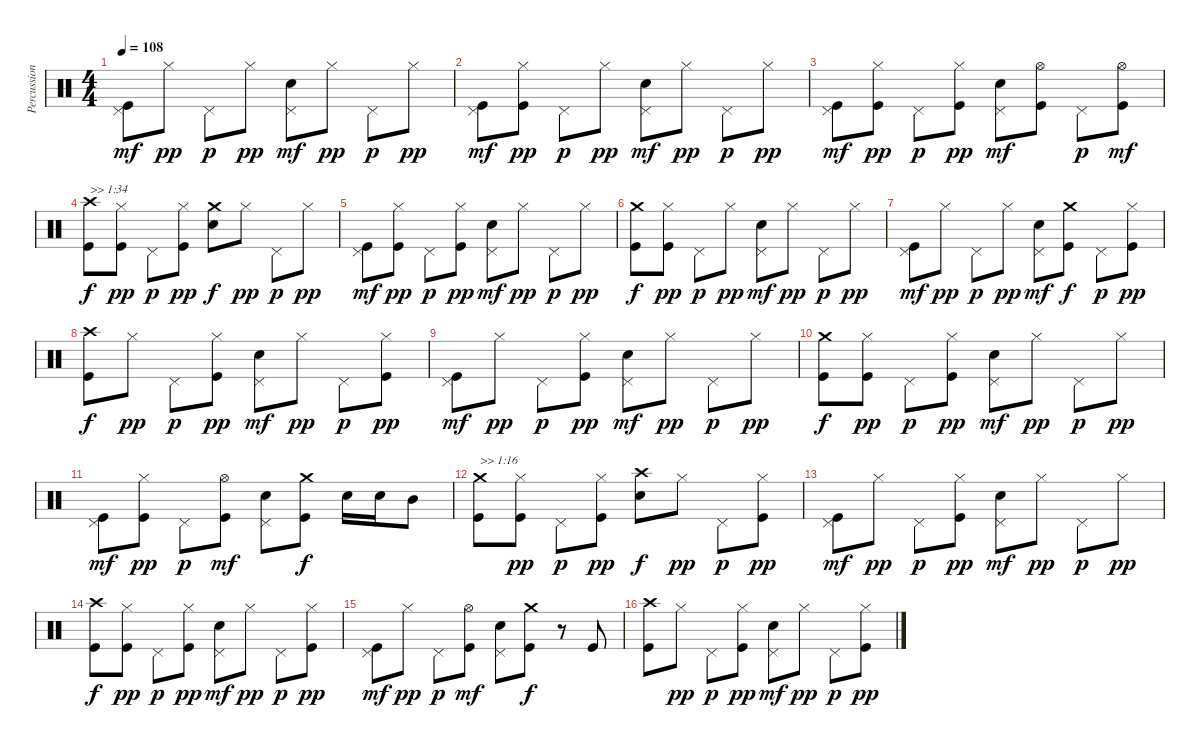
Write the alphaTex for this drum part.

\track ("Percussion" "Percussion") {instrument percussion}
\staff {score}
\articulation defaults
\ts (4 4)
\tempo 108
\clef neutral
\ks c
("Kick (hit)" "Pedal Hi-Hat (hit)").8{dy mf} "Hi-Hat (closed)".8{dy pp} "Pedal Hi-Hat (hit)".8{dy p} "Hi-Hat (closed)".8{dy pp} ("Electric Snare (hit)" "Pedal Hi-Hat (hit)").8{dy mf} "Hi-Hat (closed)".8{dy pp} "Pedal Hi-Hat (hit)".8{dy p} "Hi-Hat (closed)".8{dy pp} |
("Kick (hit)" "Pedal Hi-Hat (hit)").8{dy mf} ("Kick (hit)" "Hi-Hat (closed)").8{dy pp} "Pedal Hi-Hat (hit)".8{dy p} "Hi-Hat (closed)".8{dy pp} ("Electric Snare (hit)" "Pedal Hi-Hat (hit)").8{dy mf} "Hi-Hat (closed)".8{dy pp} "Pedal Hi-Hat (hit)".8{dy p} "Hi-Hat (closed)".8{dy pp} |
("Kick (hit)" "Pedal Hi-Hat (hit)").8{dy mf} ("Kick (hit)" "Hi-Hat (closed)").8{dy pp} "Pedal Hi-Hat (hit)".8{dy p} ("Kick (hit)" "Hi-Hat (closed)").8{dy pp} ("Electric Snare (hit)" "Pedal Hi-Hat (hit)").8{dy mf} ("Kick (hit)" "Hi-Hat (open)").8 "Pedal Hi-Hat (hit)".8{dy p} ("Kick (hit)" "Hi-Hat (open)").8{dy mf} |
("Kick (hit)" "Crash high (hit)").8{txt ">> 1:34" dy f} ("Kick (hit)" "Hi-Hat (closed)").8{dy pp} "Pedal Hi-Hat (hit)".8{dy p} ("Kick (hit)" "Hi-Hat (closed)").8{dy pp} ("Electric Snare (hit)" "Crash medium (hit)").8{dy f} "Hi-Hat (closed)".8{dy pp} "Pedal Hi-Hat (hit)".8{dy p} "Hi-Hat (closed)".8{dy pp} |
("Kick (hit)" "Pedal Hi-Hat (hit)").8{dy mf} ("Kick (hit)" "Hi-Hat (closed)").8{dy pp} "Pedal Hi-Hat (hit)".8{dy p} ("Kick (hit)" "Hi-Hat (closed)").8{dy pp} ("Electric Snare (hit)" "Pedal Hi-Hat (hit)").8{dy mf} "Hi-Hat (closed)".8{dy pp} "Pedal Hi-Hat (hit)".8{dy p} "Hi-Hat (closed)".8{dy pp} |
("Kick (hit)" "Crash medium (hit)").8{dy f} ("Kick (hit)" "Hi-Hat (closed)").8{dy pp} "Pedal Hi-Hat (hit)".8{dy p} "Hi-Hat (closed)".8{dy pp} ("Electric Snare (hit)" "Pedal Hi-Hat (hit)").8{dy mf} "Hi-Hat (closed)".8{dy pp} "Pedal Hi-Hat (hit)".8{dy p} "Hi-Hat (closed)".8{dy pp} |
("Kick (hit)" "Pedal Hi-Hat (hit)").8{dy mf} "Hi-Hat (closed)".8{dy pp} "Pedal Hi-Hat (hit)".8{dy p} "Hi-Hat (closed)".8{dy pp} ("Electric Snare (hit)" "Pedal Hi-Hat (hit)").8{dy mf} ("Kick (hit)" "Crash medium (hit)").8{dy f} "Pedal Hi-Hat (hit)".8{dy p} ("Kick (hit)" "Hi-Hat (closed)").8{dy pp} |
("Kick (hit)" "Crash high (hit)").8{dy f} "Hi-Hat (closed)".8{dy pp} "Pedal Hi-Hat (hit)".8{dy p} ("Kick (hit)" "Hi-Hat (closed)").8{dy pp} ("Electric Snare (hit)" "Pedal Hi-Hat (hit)").8{dy mf} "Hi-Hat (closed)".8{dy pp} "Pedal Hi-Hat (hit)".8{dy p} ("Kick (hit)" "Hi-Hat (closed)").8{dy pp} |
("Kick (hit)" "Pedal Hi-Hat (hit)").8{dy mf} "Hi-Hat (closed)".8{dy pp} "Pedal Hi-Hat (hit)".8{dy p} ("Kick (hit)" "Hi-Hat (closed)").8{dy pp} ("Electric Snare (hit)" "Pedal Hi-Hat (hit)").8{dy mf} "Hi-Hat (closed)".8{dy pp} "Pedal Hi-Hat (hit)".8{dy p} "Hi-Hat (closed)".8{dy pp} |
("Kick (hit)" "Crash medium (hit)").8{dy f} ("Kick (hit)" "Hi-Hat (closed)").8{dy pp} "Pedal Hi-Hat (hit)".8{dy p} ("Kick (hit)" "Hi-Hat (closed)").8{dy pp} ("Electric Snare (hit)" "Pedal Hi-Hat (hit)").8{dy mf} "Hi-Hat (closed)".8{dy pp} "Pedal Hi-Hat (hit)".8{dy p} "Hi-Hat (closed)".8{dy pp} |
("Kick (hit)" "Pedal Hi-Hat (hit)").8{dy mf} ("Kick (hit)" "Hi-Hat (closed)").8{dy pp} "Pedal Hi-Hat (hit)".8{dy p} ("Kick (hit)" "Hi-Hat (open)").8{dy mf} ("Electric Snare (hit)" "Pedal Hi-Hat (hit)").8 ("Kick (hit)" "Crash medium (hit)").8{dy f} "Electric Snare (hit)".16 "Electric Snare (hit)".16 "Mid Tom (hit)".8 |
("Kick (hit)" "Crash medium (hit)").8{txt ">> 1:16"} ("Kick (hit)" "Hi-Hat (closed)").8{dy pp} "Pedal Hi-Hat (hit)".8{dy p} ("Kick (hit)" "Hi-Hat (closed)").8{dy pp} ("Electric Snare (hit)" "Crash high (hit)").8{dy f} "Hi-Hat (closed)".8{dy pp} "Pedal Hi-Hat (hit)".8{dy p} ("Kick (hit)" "Hi-Hat (closed)").8{dy pp} |
("Kick (hit)" "Pedal Hi-Hat (hit)").8{dy mf} "Hi-Hat (closed)".8{dy pp} "Pedal Hi-Hat (hit)".8{dy p} ("Kick (hit)" "Hi-Hat (closed)").8{dy pp} ("Electric Snare (hit)" "Pedal Hi-Hat (hit)").8{dy mf} "Hi-Hat (closed)".8{dy pp} "Pedal Hi-Hat (hit)".8{dy p} "Hi-Hat (closed)".8{dy pp} |
("Kick (hit)" "Crash high (hit)").8{dy f} ("Kick (hit)" "Hi-Hat (closed)").8{dy pp} "Pedal Hi-Hat (hit)".8{dy p} ("Kick (hit)" "Hi-Hat (closed)").8{dy pp} ("Electric Snare (hit)" "Pedal Hi-Hat (hit)").8{dy mf} "Hi-Hat (closed)".8{dy pp} "Pedal Hi-Hat (hit)".8{dy p} ("Kick (hit)" "Hi-Hat (closed)").8{dy pp} |
("Kick (hit)" "Pedal Hi-Hat (hit)").8{dy mf} "Hi-Hat (closed)".8{dy pp} "Pedal Hi-Hat (hit)".8{dy p} ("Kick (hit)" "Hi-Hat (open)").8{dy mf} ("Electric Snare (hit)" "Pedal Hi-Hat (hit)").8 ("Kick (hit)" "Crash medium (hit)").8{dy f} r.8 "Kick (hit)".8 |
("Kick (hit)" "Crash high (hit)").8 "Hi-Hat (closed)".8{dy pp} "Pedal Hi-Hat (hit)".8{dy p} ("Kick (hit)" "Hi-Hat (closed)").8{dy pp} ("Electric Snare (hit)" "Pedal Hi-Hat (hit)").8{dy mf} "Hi-Hat (closed)".8{dy pp} "Pedal Hi-Hat (hit)".8{dy p} ("Kick (hit)" "Hi-Hat (closed)").8{dy pp}
